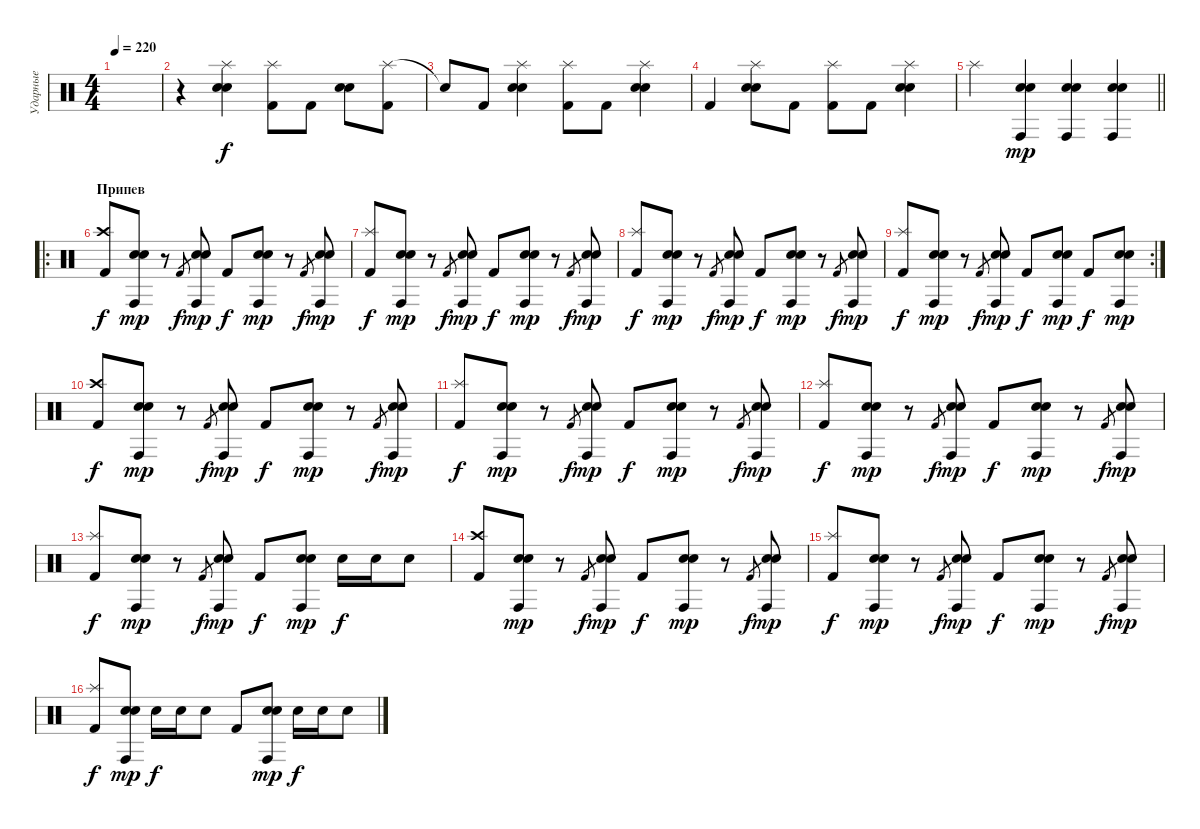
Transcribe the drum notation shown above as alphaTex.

\track ("Ударные" "Ударные") {instrument percussion}
\staff {score}
\articulation defaults
\ts (4 4)
\tempo 220
\clef neutral
\ks c
|
r.4 ("Splash (hit)" "Snare (hit) 2" "Electric Snare (hit)").4 ("Splash (hit)" "Kick (hit) 2").8 "Kick (hit) 2".8 ("Electric Snare (hit)" "Snare (hit) 2").8 ("Splash (hit)" "Kick (hit) 2").8 |
"Snare (hit)"{t}.8 "Kick (hit) 2".8 ("Splash (hit)" "Electric Snare (hit)" "Snare (hit) 2").4 ("Splash (hit)" "Kick (hit) 2").8 "Kick (hit) 2".8 ("Splash (hit)" "Electric Snare (hit)" "Snare (hit) 2").4 |
"Kick (hit) 2".4 ("Splash (hit)" "Snare (hit) 2" "Electric Snare (hit)").8 "Kick (hit) 2".8 ("Splash (hit)" "Kick (hit) 2").8 "Kick (hit) 2".8 ("Splash (hit)" "Electric Snare (hit)" "Snare (hit) 2").4 |
\barLineRight lightlight "Splash (hit)".4
("Conga high (hit)" "Electric Snare (hit)" "Snare (hit) 2").4{dy mp} ("Conga high (hit)" "Electric Snare (hit)" "Snare (hit) 2").4 ("Conga high (hit)" "Electric Snare (hit)" "Snare (hit) 2").4 |
\ro
\section ("" "Припев")
("Crash high (hit)" "Kick (hit) 2").8{dy f} ("Conga high (hit)" "Electric Snare (hit)" "Snare (hit) 2").8{dy mp} r.8 "Kick (hit) 2".8{gr dy f} ("Conga high (hit)" "Electric Snare (hit)" "Snare (hit) 2").8{dy mp} "Kick (hit) 2".8{dy f} ("Conga high (hit)" "Electric Snare (hit)" "Snare (hit) 2").8{dy mp} r.8 "Kick (hit) 2".8{gr dy f} ("Conga high (hit)" "Electric Snare (hit)" "Snare (hit) 2").8{dy mp} |
("Splash (hit)" "Kick (hit) 2").8{dy f} ("Conga high (hit)" "Electric Snare (hit)" "Snare (hit) 2").8{dy mp} r.8 "Kick (hit) 2".8{gr dy f} ("Conga high (hit)" "Electric Snare (hit)" "Snare (hit) 2").8{dy mp} "Kick (hit) 2".8{dy f} ("Conga high (hit)" "Electric Snare (hit)" "Snare (hit) 2").8{dy mp} r.8 "Kick (hit) 2".8{gr dy f} ("Conga high (hit)" "Electric Snare (hit)" "Snare (hit) 2").8{dy mp} |
("Splash (hit)" "Kick (hit) 2").8{dy f} ("Conga high (hit)" "Electric Snare (hit)" "Snare (hit) 2").8{dy mp} r.8 "Kick (hit) 2".8{gr dy f} ("Conga high (hit)" "Electric Snare (hit)" "Snare (hit) 2").8{dy mp} "Kick (hit) 2".8{dy f} ("Conga high (hit)" "Electric Snare (hit)" "Snare (hit) 2").8{dy mp} r.8 "Kick (hit) 2".8{gr dy f} ("Conga high (hit)" "Electric Snare (hit)" "Snare (hit) 2").8{dy mp} |
\rc 2
("Splash (hit)" "Kick (hit) 2").8{dy f} ("Conga high (hit)" "Electric Snare (hit)" "Snare (hit) 2").8{dy mp} r.8 "Kick (hit) 2".8{gr dy f} ("Conga high (hit)" "Electric Snare (hit)" "Snare (hit) 2").8{dy mp} "Kick (hit) 2".8{dy f} ("Conga high (hit)" "Electric Snare (hit)" "Snare (hit) 2").8{dy mp} "Kick (hit) 2".8{dy f} ("Conga high (hit)" "Electric Snare (hit)" "Snare (hit) 2").8{dy mp} |
("Crash high (hit)" "Kick (hit) 2").8{dy f} ("Conga high (hit)" "Electric Snare (hit)" "Snare (hit) 2").8{dy mp} r.8 "Kick (hit) 2".8{gr dy f} ("Conga high (hit)" "Electric Snare (hit)" "Snare (hit) 2").8{dy mp} "Kick (hit) 2".8{dy f} ("Conga high (hit)" "Electric Snare (hit)" "Snare (hit) 2").8{dy mp} r.8 "Kick (hit) 2".8{gr dy f} ("Conga high (hit)" "Electric Snare (hit)" "Snare (hit) 2").8{dy mp} |
("Splash (hit)" "Kick (hit) 2").8{dy f} ("Conga high (hit)" "Electric Snare (hit)" "Snare (hit) 2").8{dy mp} r.8 "Kick (hit) 2".8{gr dy f} ("Conga high (hit)" "Electric Snare (hit)" "Snare (hit) 2").8{dy mp} "Kick (hit) 2".8{dy f} ("Conga high (hit)" "Electric Snare (hit)" "Snare (hit) 2").8{dy mp} r.8 "Kick (hit) 2".8{gr dy f} ("Conga high (hit)" "Electric Snare (hit)" "Snare (hit) 2").8{dy mp} |
("Splash (hit)" "Kick (hit) 2").8{dy f} ("Conga high (hit)" "Electric Snare (hit)" "Snare (hit) 2").8{dy mp} r.8 "Kick (hit) 2".8{gr dy f} ("Conga high (hit)" "Electric Snare (hit)" "Snare (hit) 2").8{dy mp} "Kick (hit) 2".8{dy f} ("Conga high (hit)" "Electric Snare (hit)" "Snare (hit) 2").8{dy mp} r.8 "Kick (hit) 2".8{gr dy f} ("Conga high (hit)" "Electric Snare (hit)" "Snare (hit) 2").8{dy mp} |
("Splash (hit)" "Kick (hit) 2").8{dy f} ("Conga high (hit)" "Electric Snare (hit)" "Snare (hit) 2").8{dy mp} r.8 "Kick (hit) 2".8{gr dy f} ("Conga high (hit)" "Electric Snare (hit)" "Snare (hit) 2").8{dy mp} "Kick (hit) 2".8{dy f} ("Conga high (hit)" "Electric Snare (hit)" "Snare (hit) 2").8{dy mp} "Electric Snare (hit)".16{dy f} "Electric Snare (hit)".16 "Electric Snare (hit)".8 |
("Crash high (hit)" "Kick (hit) 2").8 ("Conga high (hit)" "Electric Snare (hit)" "Snare (hit) 2").8{dy mp} r.8 "Kick (hit) 2".8{gr dy f} ("Conga high (hit)" "Electric Snare (hit)" "Snare (hit) 2").8{dy mp} "Kick (hit) 2".8{dy f} ("Conga high (hit)" "Electric Snare (hit)" "Snare (hit) 2").8{dy mp} r.8 "Kick (hit) 2".8{gr dy f} ("Conga high (hit)" "Electric Snare (hit)" "Snare (hit) 2").8{dy mp} |
("Splash (hit)" "Kick (hit) 2").8{dy f} ("Conga high (hit)" "Electric Snare (hit)" "Snare (hit) 2").8{dy mp} r.8 "Kick (hit) 2".8{gr dy f} ("Conga high (hit)" "Electric Snare (hit)" "Snare (hit) 2").8{dy mp} "Kick (hit) 2".8{dy f} ("Conga high (hit)" "Electric Snare (hit)" "Snare (hit) 2").8{dy mp} r.8 "Kick (hit) 2".8{gr dy f} ("Conga high (hit)" "Electric Snare (hit)" "Snare (hit) 2").8{dy mp} |
("Splash (hit)" "Kick (hit) 2").8{dy f} ("Conga high (hit)" "Electric Snare (hit)" "Snare (hit) 2").8{dy mp} "Electric Snare (hit)".16{dy f} "Electric Snare (hit)".16 "Electric Snare (hit)".8 "Kick (hit) 2".8 ("Conga high (hit)" "Electric Snare (hit)" "Snare (hit) 2").8{dy mp} "Electric Snare (hit)".16{dy f} "Electric Snare (hit)".16 "Electric Snare (hit)".8
